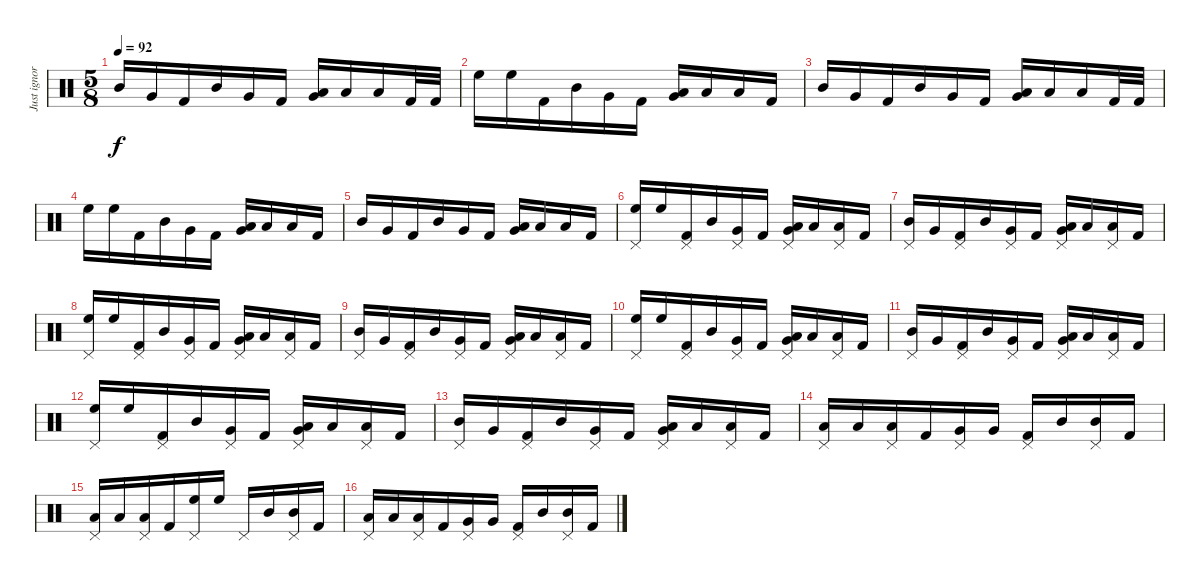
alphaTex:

\track ("Just ignore this track" "Just ignor") {instrument percussion}
\staff {score}
\articulation defaults
\ts (5 8)
\tempo 92
\clef neutral
\ks c "Mid Tom (hit)".16{dy f} "Very Low Tom (hit)".16 "Kick (hit) 2".16 "Mid Tom (hit)".16 "Very Low Tom (hit)".16 "Kick (hit) 2".16
("Low Floor Tom (hit)" "Very Low Tom (hit)").16 "Low Floor Tom (hit)".16 "Low Floor Tom (hit)".16 "Kick (hit) 2".32 "Kick (hit) 2".32 |
"High Floor Tom (hit)".16 "High Floor Tom (hit)".16 "Kick (hit) 2".16 "Mid Tom (hit)".16 "Very Low Tom (hit)".16 "Kick (hit) 2".16 ("Low Floor Tom (hit)" "Very Low Tom (hit)").16 "Low Floor Tom (hit)".16 "Low Floor Tom (hit)".16 "Kick (hit) 2".16 |
"Mid Tom (hit)".16 "Very Low Tom (hit)".16 "Kick (hit) 2".16 "Mid Tom (hit)".16 "Very Low Tom (hit)".16 "Kick (hit) 2".16 ("Low Floor Tom (hit)" "Very Low Tom (hit)").16 "Low Floor Tom (hit)".16 "Low Floor Tom (hit)".16 "Kick (hit) 2".32 "Kick (hit) 2".32 |
"High Floor Tom (hit)".16 "High Floor Tom (hit)".16 "Kick (hit) 2".16 "Mid Tom (hit)".16 "Very Low Tom (hit)".16 "Kick (hit) 2".16 ("Low Floor Tom (hit)" "Very Low Tom (hit)").16 "Low Floor Tom (hit)".16 "Low Floor Tom (hit)".16 "Kick (hit) 2".16 |
"Mid Tom (hit)".16 "Very Low Tom (hit)".16 "Kick (hit) 2".16 "Mid Tom (hit)".16 "Very Low Tom (hit)".16 "Kick (hit) 2".16 ("Low Floor Tom (hit)" "Very Low Tom (hit)").16 "Low Floor Tom (hit)".16 "Low Floor Tom (hit)".16 "Kick (hit) 2".16 |
("Pedal Hi-Hat (hit)" "High Floor Tom (hit)").16 "High Floor Tom (hit)".16 ("Pedal Hi-Hat (hit)" "Kick (hit) 2").16 "Mid Tom (hit)".16 ("Pedal Hi-Hat (hit)" "Very Low Tom (hit)").16 "Kick (hit) 2".16 ("Pedal Hi-Hat (hit)" "Low Floor Tom (hit)" "Very Low Tom (hit)").16 "Low Floor Tom (hit)".16 ("Pedal Hi-Hat (hit)" "Low Floor Tom (hit)").16 "Kick (hit) 2".16 |
("Pedal Hi-Hat (hit)" "Mid Tom (hit)").16 "Very Low Tom (hit)".16 ("Pedal Hi-Hat (hit)" "Kick (hit) 2").16 "Mid Tom (hit)".16 ("Pedal Hi-Hat (hit)" "Very Low Tom (hit)").16 "Kick (hit) 2".16 ("Pedal Hi-Hat (hit)" "Low Floor Tom (hit)" "Very Low Tom (hit)").16 "Low Floor Tom (hit)".16 ("Pedal Hi-Hat (hit)" "Low Floor Tom (hit)").16 "Kick (hit) 2".16 |
("Pedal Hi-Hat (hit)" "High Floor Tom (hit)").16 "High Floor Tom (hit)".16 ("Pedal Hi-Hat (hit)" "Kick (hit) 2").16 "Mid Tom (hit)".16 ("Pedal Hi-Hat (hit)" "Very Low Tom (hit)").16 "Kick (hit) 2".16 ("Pedal Hi-Hat (hit)" "Low Floor Tom (hit)" "Very Low Tom (hit)").16 "Low Floor Tom (hit)".16 ("Pedal Hi-Hat (hit)" "Low Floor Tom (hit)").16 "Kick (hit) 2".16 |
("Pedal Hi-Hat (hit)" "Mid Tom (hit)").16 "Very Low Tom (hit)".16 ("Pedal Hi-Hat (hit)" "Kick (hit) 2").16 "Mid Tom (hit)".16 ("Pedal Hi-Hat (hit)" "Very Low Tom (hit)").16 "Kick (hit) 2".16 ("Pedal Hi-Hat (hit)" "Low Floor Tom (hit)" "Very Low Tom (hit)").16 "Low Floor Tom (hit)".16 ("Pedal Hi-Hat (hit)" "Low Floor Tom (hit)").16 "Kick (hit) 2".16 |
("Pedal Hi-Hat (hit)" "High Floor Tom (hit)").16 "High Floor Tom (hit)".16 ("Pedal Hi-Hat (hit)" "Kick (hit) 2").16 "Mid Tom (hit)".16 ("Pedal Hi-Hat (hit)" "Very Low Tom (hit)").16 "Kick (hit) 2".16 ("Pedal Hi-Hat (hit)" "Low Floor Tom (hit)" "Very Low Tom (hit)").16 "Low Floor Tom (hit)".16 ("Pedal Hi-Hat (hit)" "Low Floor Tom (hit)").16 "Kick (hit) 2".16 |
("Pedal Hi-Hat (hit)" "Mid Tom (hit)").16 "Very Low Tom (hit)".16 ("Pedal Hi-Hat (hit)" "Kick (hit) 2").16 "Mid Tom (hit)".16 ("Pedal Hi-Hat (hit)" "Very Low Tom (hit)").16 "Kick (hit) 2".16 ("Pedal Hi-Hat (hit)" "Low Floor Tom (hit)" "Very Low Tom (hit)").16 "Low Floor Tom (hit)".16 ("Pedal Hi-Hat (hit)" "Low Floor Tom (hit)").16 "Kick (hit) 2".16 |
("Pedal Hi-Hat (hit)" "High Floor Tom (hit)").16 "High Floor Tom (hit)".16 ("Pedal Hi-Hat (hit)" "Kick (hit) 2").16 "Mid Tom (hit)".16 ("Pedal Hi-Hat (hit)" "Very Low Tom (hit)").16 "Kick (hit) 2".16 ("Pedal Hi-Hat (hit)" "Low Floor Tom (hit)" "Very Low Tom (hit)").16 "Low Floor Tom (hit)".16 ("Pedal Hi-Hat (hit)" "Low Floor Tom (hit)").16 "Kick (hit) 2".16 |
("Pedal Hi-Hat (hit)" "Mid Tom (hit)").16 "Very Low Tom (hit)".16 ("Pedal Hi-Hat (hit)" "Kick (hit) 2").16 "Mid Tom (hit)".16 ("Pedal Hi-Hat (hit)" "Very Low Tom (hit)").16 "Kick (hit) 2".16 ("Pedal Hi-Hat (hit)" "Low Floor Tom (hit)" "Very Low Tom (hit)").16 "Low Floor Tom (hit)".16 ("Pedal Hi-Hat (hit)" "Low Floor Tom (hit)").16 "Kick (hit) 2".16 |
("Pedal Hi-Hat (hit)" "Low Floor Tom (hit)").16 "Low Floor Tom (hit)".16 ("Pedal Hi-Hat (hit)" "Low Floor Tom (hit)").16 "Kick (hit) 2".16 ("Pedal Hi-Hat (hit)" "Very Low Tom (hit)").16 "Very Low Tom (hit)".16 ("Pedal Hi-Hat (hit)" "Kick (hit) 2").16 "Mid Tom (hit)".16 ("Pedal Hi-Hat (hit)" "Mid Tom (hit)").16 "Kick (hit) 2".16 |
("Pedal Hi-Hat (hit)" "Low Floor Tom (hit)").16 "Low Floor Tom (hit)".16 ("Pedal Hi-Hat (hit)" "Low Floor Tom (hit)").16 "Kick (hit) 2".16 ("Pedal Hi-Hat (hit)" "High Floor Tom (hit)").16 "High Floor Tom (hit)".16 "Pedal Hi-Hat (hit)".16 "Mid Tom (hit)".16 ("Pedal Hi-Hat (hit)" "Mid Tom (hit)").16 "Kick (hit) 2".16 |
("Pedal Hi-Hat (hit)" "Low Floor Tom (hit)").16 "Low Floor Tom (hit)".16 ("Pedal Hi-Hat (hit)" "Low Floor Tom (hit)").16 "Kick (hit) 2".16 ("Pedal Hi-Hat (hit)" "Very Low Tom (hit)").16 "Very Low Tom (hit)".16 ("Pedal Hi-Hat (hit)" "Kick (hit) 2").16 "Mid Tom (hit)".16 ("Pedal Hi-Hat (hit)" "Mid Tom (hit)").16 "Kick (hit) 2".16
